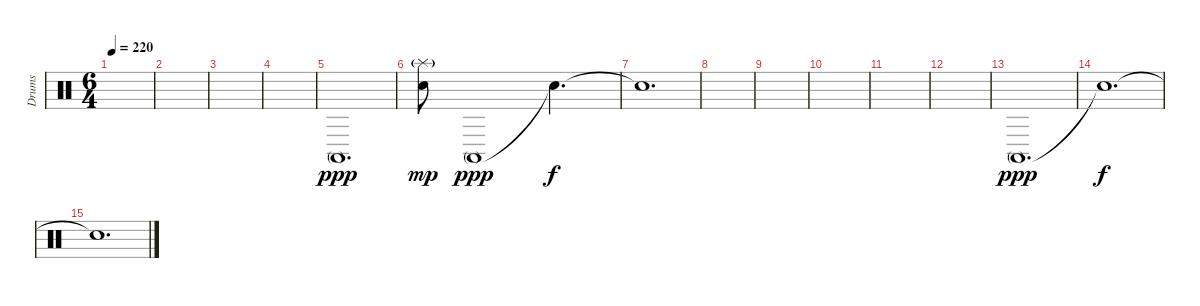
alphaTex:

\track ("Drums" "Drums") {instrument percussion}
\staff {score}
\articulation defaults
\ts (6 4)
\tempo 220
\clef neutral
\ks c
|
|
|
|
"Conga high (mute)".1{d dy ppp volume 14} |
("Splash (hit)"{g} "Snare (hit)").8{dy mp} "Conga high (mute)".1{dy ppp} "Snare (hit)"{t}.4{d dy f} |
"Snare (hit)"{t}.1{d volume 0} |
|
|
|
|
|
"Conga high (mute)".1{d dy ppp volume 14} |
"Snare (hit)"{t}.1{d dy f} |
"Snare (hit)"{t}.1{d volume 0}
